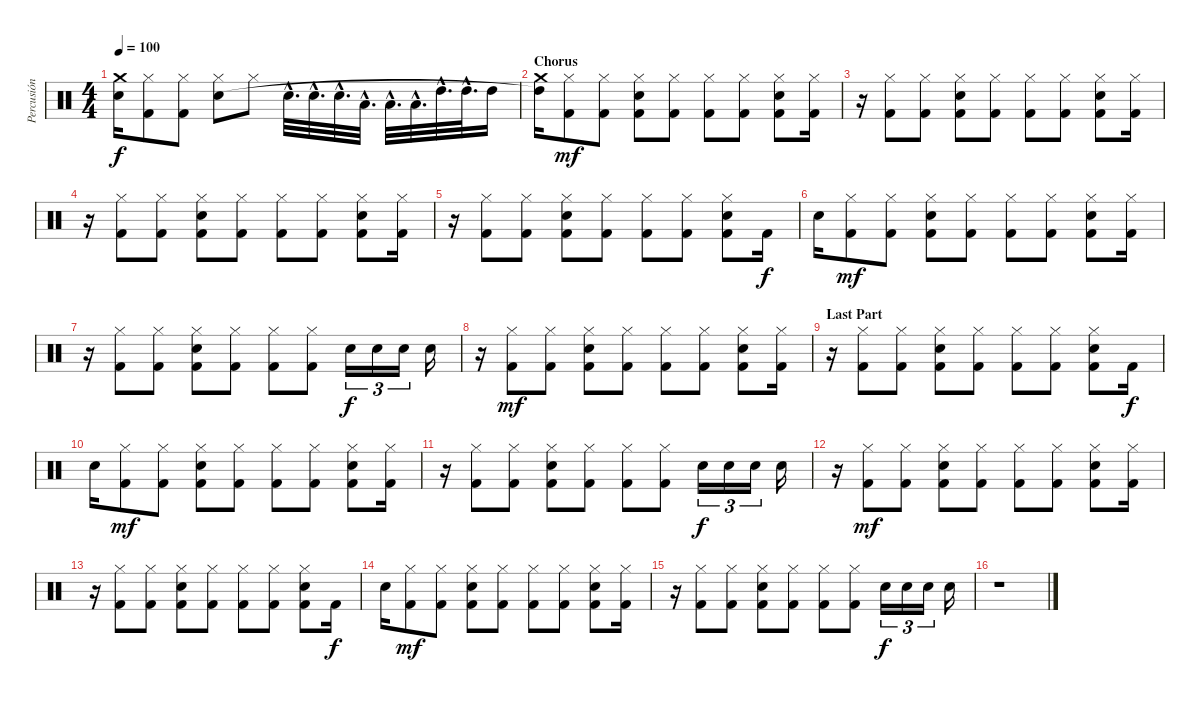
\track ("Percusión" "Percusión") {instrument percussion}
\staff {score}
\articulation defaults
\ts (4 4)
\tempo 100
\clef neutral
\ks c
("Snare (hit)"{t} "Crash medium (hit)").16{dy f} ("Hi-Hat (closed)" "Kick (hit) 2").8 ("Hi-Hat (closed)" "Kick (hit) 2").8 ("Hi-Hat (closed)" "Electric Snare (hit)").8 "Hi-Hat (closed)".8 "Electric Snare (hit)"{hac}.32{d} "Electric Snare (hit)"{hac}.32{d} "Electric Snare (hit)"{hac}.32{d} "Low Tom (hit)"{hac}.32{d} "Low Tom (hit)"{hac}.32{d} "Low Tom (hit)"{hac}.32{d} "High Tom (hit)"{hac}.32{d} "High Tom (hit)"{hac}.32{d} "High Tom (hit)".16 |
\section ("" "Chorus")
("Crash medium (hit)" "High Tom (hit)"{t}).16 ("Hi-Hat (closed)" "Kick (hit) 2").8{dy mf} ("Hi-Hat (closed)" "Kick (hit) 2").8 ("Hi-Hat (closed)" "Electric Snare (hit)" "Kick (hit) 2").8 ("Hi-Hat (closed)" "Kick (hit) 2").8 ("Hi-Hat (closed)" "Kick (hit) 2").8 ("Hi-Hat (closed)" "Kick (hit) 2").8 ("Hi-Hat (closed)" "Electric Snare (hit)" "Kick (hit) 2").8 ("Hi-Hat (closed)" "Kick (hit) 2").16 |
r.16 ("Hi-Hat (closed)" "Kick (hit) 2").8 ("Hi-Hat (closed)" "Kick (hit) 2").8 ("Hi-Hat (closed)" "Electric Snare (hit)" "Kick (hit) 2").8 ("Hi-Hat (closed)" "Kick (hit) 2").8 ("Hi-Hat (closed)" "Kick (hit) 2").8 ("Hi-Hat (closed)" "Kick (hit) 2").8 ("Hi-Hat (closed)" "Electric Snare (hit)" "Kick (hit) 2").8 ("Hi-Hat (closed)" "Kick (hit) 2").16 |
r.16 ("Hi-Hat (closed)" "Kick (hit) 2").8 ("Hi-Hat (closed)" "Kick (hit) 2").8 ("Hi-Hat (closed)" "Electric Snare (hit)" "Kick (hit) 2").8 ("Hi-Hat (closed)" "Kick (hit) 2").8 ("Hi-Hat (closed)" "Kick (hit) 2").8 ("Hi-Hat (closed)" "Kick (hit) 2").8 ("Hi-Hat (closed)" "Electric Snare (hit)" "Kick (hit) 2").8 ("Hi-Hat (closed)" "Kick (hit) 2").16 |
r.16 ("Hi-Hat (closed)" "Kick (hit) 2").8 ("Hi-Hat (closed)" "Kick (hit) 2").8 ("Hi-Hat (closed)" "Electric Snare (hit)" "Kick (hit) 2").8 ("Hi-Hat (closed)" "Kick (hit) 2").8 ("Hi-Hat (closed)" "Kick (hit) 2").8 ("Hi-Hat (closed)" "Kick (hit) 2").8 ("Hi-Hat (closed)" "Electric Snare (hit)" "Kick (hit) 2").8 "Kick (hit) 2".16{dy f} |
"Electric Snare (hit)".16 ("Hi-Hat (closed)" "Kick (hit) 2").8{dy mf} ("Hi-Hat (closed)" "Kick (hit) 2").8 ("Hi-Hat (closed)" "Electric Snare (hit)" "Kick (hit) 2").8 ("Hi-Hat (closed)" "Kick (hit) 2").8 ("Hi-Hat (closed)" "Kick (hit) 2").8 ("Hi-Hat (closed)" "Kick (hit) 2").8 ("Hi-Hat (closed)" "Electric Snare (hit)" "Kick (hit) 2").8 ("Hi-Hat (closed)" "Kick (hit) 2").16 |
r.16 ("Hi-Hat (closed)" "Kick (hit) 2").8 ("Hi-Hat (closed)" "Kick (hit) 2").8 ("Hi-Hat (closed)" "Electric Snare (hit)" "Kick (hit) 2").8 ("Hi-Hat (closed)" "Kick (hit) 2").8 ("Hi-Hat (closed)" "Kick (hit) 2").8 ("Hi-Hat (closed)" "Kick (hit) 2").8 "Electric Snare (hit)".16{tu (3 2) dy f} "Electric Snare (hit)".16{tu (3 2)} "Electric Snare (hit)".16{tu (3 2)} "Electric Snare (hit)".16 |
r.16 ("Hi-Hat (closed)" "Kick (hit) 2").8{dy mf} ("Hi-Hat (closed)" "Kick (hit) 2").8 ("Hi-Hat (closed)" "Electric Snare (hit)" "Kick (hit) 2").8 ("Hi-Hat (closed)" "Kick (hit) 2").8 ("Hi-Hat (closed)" "Kick (hit) 2").8 ("Hi-Hat (closed)" "Kick (hit) 2").8 ("Hi-Hat (closed)" "Electric Snare (hit)" "Kick (hit) 2").8 ("Hi-Hat (closed)" "Kick (hit) 2").16 |
\section ("" "Last Part")
r.16 ("Hi-Hat (closed)" "Kick (hit) 2").8 ("Hi-Hat (closed)" "Kick (hit) 2").8 ("Hi-Hat (closed)" "Electric Snare (hit)" "Kick (hit) 2").8 ("Hi-Hat (closed)" "Kick (hit) 2").8 ("Hi-Hat (closed)" "Kick (hit) 2").8 ("Hi-Hat (closed)" "Kick (hit) 2").8 ("Hi-Hat (closed)" "Electric Snare (hit)" "Kick (hit) 2").8 "Kick (hit) 2".16{dy f} |
"Electric Snare (hit)".16 ("Hi-Hat (closed)" "Kick (hit) 2").8{dy mf} ("Hi-Hat (closed)" "Kick (hit) 2").8 ("Hi-Hat (closed)" "Electric Snare (hit)" "Kick (hit) 2").8 ("Hi-Hat (closed)" "Kick (hit) 2").8 ("Hi-Hat (closed)" "Kick (hit) 2").8 ("Hi-Hat (closed)" "Kick (hit) 2").8 ("Hi-Hat (closed)" "Electric Snare (hit)" "Kick (hit) 2").8 ("Hi-Hat (closed)" "Kick (hit) 2").16 |
r.16 ("Hi-Hat (closed)" "Kick (hit) 2").8 ("Hi-Hat (closed)" "Kick (hit) 2").8 ("Hi-Hat (closed)" "Electric Snare (hit)" "Kick (hit) 2").8 ("Hi-Hat (closed)" "Kick (hit) 2").8 ("Hi-Hat (closed)" "Kick (hit) 2").8 ("Hi-Hat (closed)" "Kick (hit) 2").8 "Electric Snare (hit)".16{tu (3 2) dy f} "Electric Snare (hit)".16{tu (3 2)} "Electric Snare (hit)".16{tu (3 2)} "Electric Snare (hit)".16 |
r.16 ("Hi-Hat (closed)" "Kick (hit) 2").8{dy mf} ("Hi-Hat (closed)" "Kick (hit) 2").8 ("Hi-Hat (closed)" "Electric Snare (hit)" "Kick (hit) 2").8 ("Hi-Hat (closed)" "Kick (hit) 2").8 ("Hi-Hat (closed)" "Kick (hit) 2").8 ("Hi-Hat (closed)" "Kick (hit) 2").8 ("Hi-Hat (closed)" "Electric Snare (hit)" "Kick (hit) 2").8 ("Hi-Hat (closed)" "Kick (hit) 2").16 |
r.16 ("Hi-Hat (closed)" "Kick (hit) 2").8 ("Hi-Hat (closed)" "Kick (hit) 2").8 ("Hi-Hat (closed)" "Electric Snare (hit)" "Kick (hit) 2").8 ("Hi-Hat (closed)" "Kick (hit) 2").8 ("Hi-Hat (closed)" "Kick (hit) 2").8 ("Hi-Hat (closed)" "Kick (hit) 2").8 ("Hi-Hat (closed)" "Electric Snare (hit)" "Kick (hit) 2").8 "Kick (hit) 2".16{dy f} |
"Electric Snare (hit)".16 ("Hi-Hat (closed)" "Kick (hit) 2").8{dy mf} ("Hi-Hat (closed)" "Kick (hit) 2").8 ("Hi-Hat (closed)" "Electric Snare (hit)" "Kick (hit) 2").8 ("Hi-Hat (closed)" "Kick (hit) 2").8 ("Hi-Hat (closed)" "Kick (hit) 2").8 ("Hi-Hat (closed)" "Kick (hit) 2").8 ("Hi-Hat (closed)" "Electric Snare (hit)" "Kick (hit) 2").8 ("Hi-Hat (closed)" "Kick (hit) 2").16 |
r.16 ("Hi-Hat (closed)" "Kick (hit) 2").8 ("Hi-Hat (closed)" "Kick (hit) 2").8 ("Hi-Hat (closed)" "Electric Snare (hit)" "Kick (hit) 2").8 ("Hi-Hat (closed)" "Kick (hit) 2").8 ("Hi-Hat (closed)" "Kick (hit) 2").8 ("Hi-Hat (closed)" "Kick (hit) 2").8 "Electric Snare (hit)".16{tu (3 2) dy f} "Electric Snare (hit)".16{tu (3 2)} "Electric Snare (hit)".16{tu (3 2)} "Electric Snare (hit)".16 |
r.1
